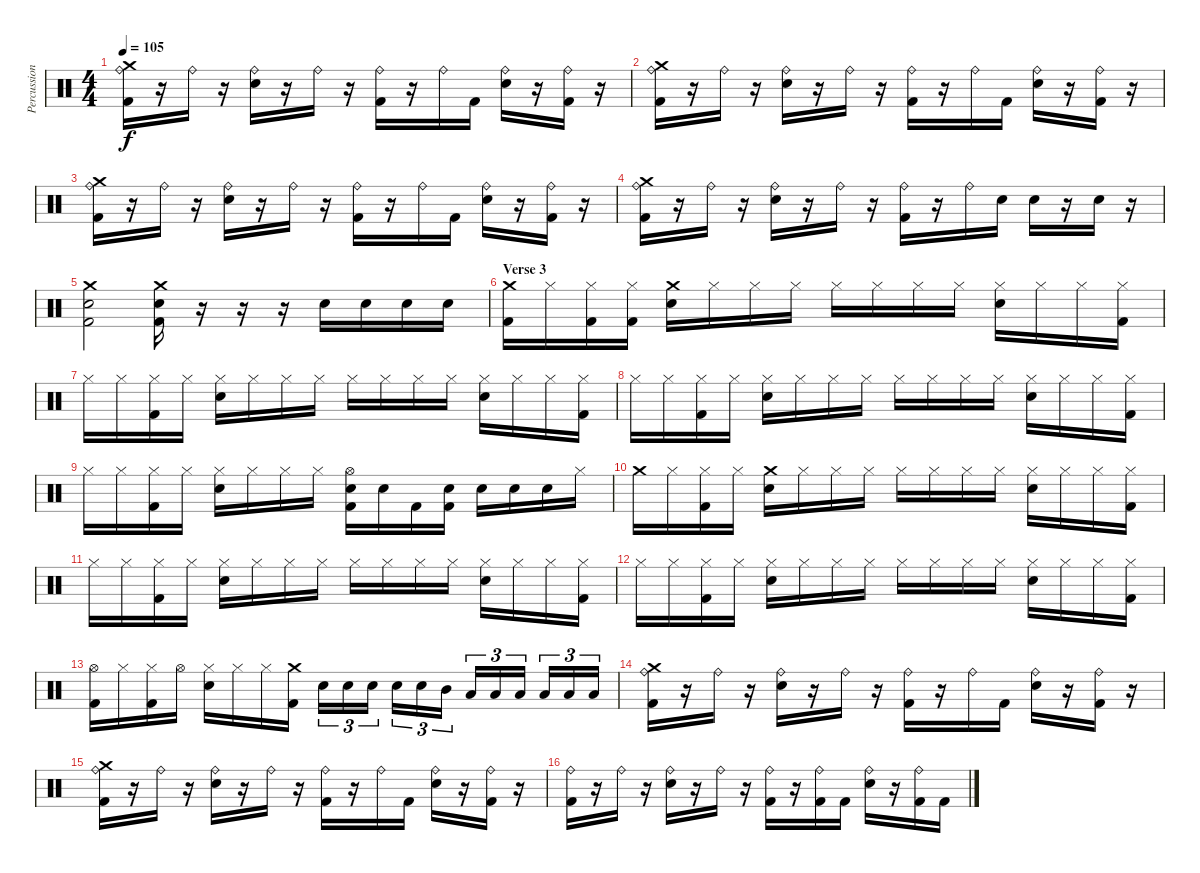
\track ("Percussion" "Percussion") {instrument percussion}
\staff {score}
\articulation defaults
\ts (4 4)
\tempo 105
\clef neutral
\ks c
("Ride (bell)" "Crash medium (hit)" "Kick (hit) 2").16{dy f} r.16 "Ride (bell)".16 r.16 ("Ride (bell)" "Snare (hit) 2").16 r.16 "Ride (bell)".16 r.16 ("Ride (bell)" "Kick (hit) 2").16 r.16 "Ride (bell)".16 "Kick (hit) 2".16 ("Ride (bell)" "Snare (hit) 2").16 r.16 ("Ride (bell)" "Kick (hit) 2").16 r.16 |
("Ride (bell)" "Crash medium (hit)" "Kick (hit) 2").16 r.16 "Ride (bell)".16 r.16 ("Ride (bell)" "Snare (hit) 2").16 r.16 "Ride (bell)".16 r.16 ("Ride (bell)" "Kick (hit) 2").16 r.16 "Ride (bell)".16 "Kick (hit) 2".16 ("Ride (bell)" "Snare (hit) 2").16 r.16 ("Ride (bell)" "Kick (hit) 2").16 r.16 |
("Ride (bell)" "Crash medium (hit)" "Kick (hit) 2").16 r.16 "Ride (bell)".16 r.16 ("Ride (bell)" "Snare (hit) 2").16 r.16 "Ride (bell)".16 r.16 ("Ride (bell)" "Kick (hit) 2").16 r.16 "Ride (bell)".16 "Kick (hit) 2".16 ("Ride (bell)" "Snare (hit) 2").16 r.16 ("Ride (bell)" "Kick (hit) 2").16 r.16 |
("Ride (bell)" "Crash medium (hit)" "Kick (hit) 2").16 r.16 "Ride (bell)".16 r.16 ("Ride (bell)" "Snare (hit) 2").16 r.16 "Ride (bell)".16 r.16 ("Ride (bell)" "Kick (hit) 2").16 r.16 "Ride (bell)".16 "Snare (hit) 2".16 "Snare (hit) 2".16 r.16 "Snare (hit) 2".16 r.16 |
("Crash medium (hit)" "Snare (hit) 2" "Kick (hit) 2").2 ("Crash medium (hit)" "Snare (hit) 2" "Kick (hit) 2").16 r.16 r.16 r.16 "Snare (hit) 2".16 "Snare (hit) 2".16 "Snare (hit) 2".16 "Snare (hit) 2".16 |
\section ("" "Verse 3")
("Crash medium (hit)" "Kick (hit) 2").16 "Hi-Hat (closed)".16 ("Hi-Hat (closed)" "Kick (hit) 2").16 ("Hi-Hat (closed)" "Kick (hit) 2").16 ("Crash medium (hit)" "Snare (hit) 2").16 "Hi-Hat (closed)".16 "Hi-Hat (closed)".16 "Hi-Hat (closed)".16 "Hi-Hat (closed)".16 "Hi-Hat (closed)".16 "Hi-Hat (closed)".16 "Hi-Hat (closed)".16 ("Hi-Hat (closed)" "Snare (hit) 2").16 "Hi-Hat (closed)".16 "Hi-Hat (closed)".16 ("Hi-Hat (closed)" "Kick (hit) 2").16 |
"Hi-Hat (closed)".16 "Hi-Hat (closed)".16 ("Hi-Hat (closed)" "Kick (hit) 2").16 "Hi-Hat (closed)".16 ("Hi-Hat (closed)" "Snare (hit) 2").16 "Hi-Hat (closed)".16 "Hi-Hat (closed)".16 "Hi-Hat (closed)".16 "Hi-Hat (closed)".16 "Hi-Hat (closed)".16 "Hi-Hat (closed)".16 "Hi-Hat (closed)".16 ("Hi-Hat (closed)" "Snare (hit) 2").16 "Hi-Hat (closed)".16 "Hi-Hat (closed)".16 ("Hi-Hat (closed)" "Kick (hit) 2").16 |
"Hi-Hat (closed)".16 "Hi-Hat (closed)".16 ("Hi-Hat (closed)" "Kick (hit) 2").16 "Hi-Hat (closed)".16 ("Hi-Hat (closed)" "Snare (hit) 2").16 "Hi-Hat (closed)".16 "Hi-Hat (closed)".16 "Hi-Hat (closed)".16 "Hi-Hat (closed)".16 "Hi-Hat (closed)".16 "Hi-Hat (closed)".16 "Hi-Hat (closed)".16 ("Hi-Hat (closed)" "Snare (hit) 2").16 "Hi-Hat (closed)".16 "Hi-Hat (closed)".16 ("Hi-Hat (closed)" "Kick (hit) 2").16 |
"Hi-Hat (closed)".16 "Hi-Hat (closed)".16 ("Hi-Hat (closed)" "Kick (hit) 2").16 "Hi-Hat (closed)".16 ("Hi-Hat (closed)" "Snare (hit) 2").16 "Hi-Hat (closed)".16 "Hi-Hat (closed)".16 "Hi-Hat (closed)".16 ("Hi-Hat (open)" "Snare (hit) 2" "Kick (hit) 2").16 "Snare (hit) 2".16 "Kick (hit) 2".16 ("Snare (hit) 2" "Kick (hit) 2").16 "Snare (hit) 2".16 "Snare (hit) 2".16 "Snare (hit) 2".16 "Hi-Hat (closed)".16 |
"Crash medium (hit)".16 "Hi-Hat (closed)".16 ("Hi-Hat (closed)" "Kick (hit) 2").16 "Hi-Hat (closed)".16 ("Crash medium (hit)" "Snare (hit) 2").16 "Hi-Hat (closed)".16 "Hi-Hat (closed)".16 "Hi-Hat (closed)".16 "Hi-Hat (closed)".16 "Hi-Hat (closed)".16 "Hi-Hat (closed)".16 "Hi-Hat (closed)".16 ("Hi-Hat (closed)" "Snare (hit) 2").16 "Hi-Hat (closed)".16 "Hi-Hat (closed)".16 ("Hi-Hat (closed)" "Kick (hit) 2").16 |
"Hi-Hat (closed)".16 "Hi-Hat (closed)".16 ("Hi-Hat (closed)" "Kick (hit) 2").16 "Hi-Hat (closed)".16 ("Hi-Hat (closed)" "Snare (hit) 2").16 "Hi-Hat (closed)".16 "Hi-Hat (closed)".16 "Hi-Hat (closed)".16 "Hi-Hat (closed)".16 "Hi-Hat (closed)".16 "Hi-Hat (closed)".16 "Hi-Hat (closed)".16 ("Hi-Hat (closed)" "Snare (hit) 2").16 "Hi-Hat (closed)".16 "Hi-Hat (closed)".16 ("Hi-Hat (closed)" "Kick (hit) 2").16 |
"Hi-Hat (closed)".16 "Hi-Hat (closed)".16 ("Hi-Hat (closed)" "Kick (hit) 2").16 "Hi-Hat (closed)".16 ("Hi-Hat (closed)" "Snare (hit) 2").16 "Hi-Hat (closed)".16 "Hi-Hat (closed)".16 "Hi-Hat (closed)".16 "Hi-Hat (closed)".16 "Hi-Hat (closed)".16 "Hi-Hat (closed)".16 "Hi-Hat (closed)".16 ("Hi-Hat (closed)" "Snare (hit) 2").16 "Hi-Hat (closed)".16 "Hi-Hat (closed)".16 ("Hi-Hat (closed)" "Kick (hit) 2").16 |
("Hi-Hat (open)" "Kick (hit) 2").16 "Hi-Hat (closed)".16 ("Hi-Hat (closed)" "Kick (hit) 2").16 "Hi-Hat (open)".16 ("Hi-Hat (closed)" "Snare (hit) 2").16 "Hi-Hat (closed)".16 "Hi-Hat (closed)".16 ("Crash medium (hit)" "Kick (hit) 2").16 "Snare (hit) 2".16{tu (3 2)} "Snare (hit) 2".16{tu (3 2)} "Snare (hit) 2".16{tu (3 2)} "Snare (hit) 2".16{tu (3 2)} "Snare (hit) 2".16{tu (3 2)} "Mid Tom (hit)".16{tu (3 2)} "Low Tom (hit)".16{tu (3 2)} "Low Tom (hit)".16{tu (3 2)} "Low Tom (hit)".16{tu (3 2)} "Low Tom (hit)".16{tu (3 2)} "Low Tom (hit)".16{tu (3 2)} "Low Tom (hit)".16{tu (3 2)} |
("Ride (bell)" "Crash medium (hit)" "Kick (hit) 2").16 r.16 "Ride (bell)".16 r.16 ("Ride (bell)" "Snare (hit) 2").16 r.16 "Ride (bell)".16 r.16 ("Ride (bell)" "Kick (hit) 2").16 r.16 "Ride (bell)".16 "Kick (hit) 2".16 ("Ride (bell)" "Snare (hit) 2").16 r.16 ("Ride (bell)" "Kick (hit) 2").16 r.16 |
("Ride (bell)" "Crash medium (hit)" "Kick (hit) 2").16 r.16 "Ride (bell)".16 r.16 ("Ride (bell)" "Snare (hit) 2").16 r.16 "Ride (bell)".16 r.16 ("Ride (bell)" "Kick (hit) 2").16 r.16 "Ride (bell)".16 "Kick (hit) 2".16 ("Ride (bell)" "Snare (hit) 2").16 r.16 ("Ride (bell)" "Kick (hit) 2").16 r.16 |
("Ride (bell)" "Kick (hit) 2").16 r.16 "Ride (bell)".16 r.16 ("Ride (bell)" "Snare (hit) 2").16 r.16 "Ride (bell)".16 r.16 ("Ride (bell)" "Kick (hit) 2").16 r.16 ("Ride (bell)" "Kick (hit) 2").16 "Kick (hit) 2".16 ("Ride (bell)" "Snare (hit) 2").16 r.16 ("Ride (bell)" "Kick (hit) 2").16 "Kick (hit) 2".16
